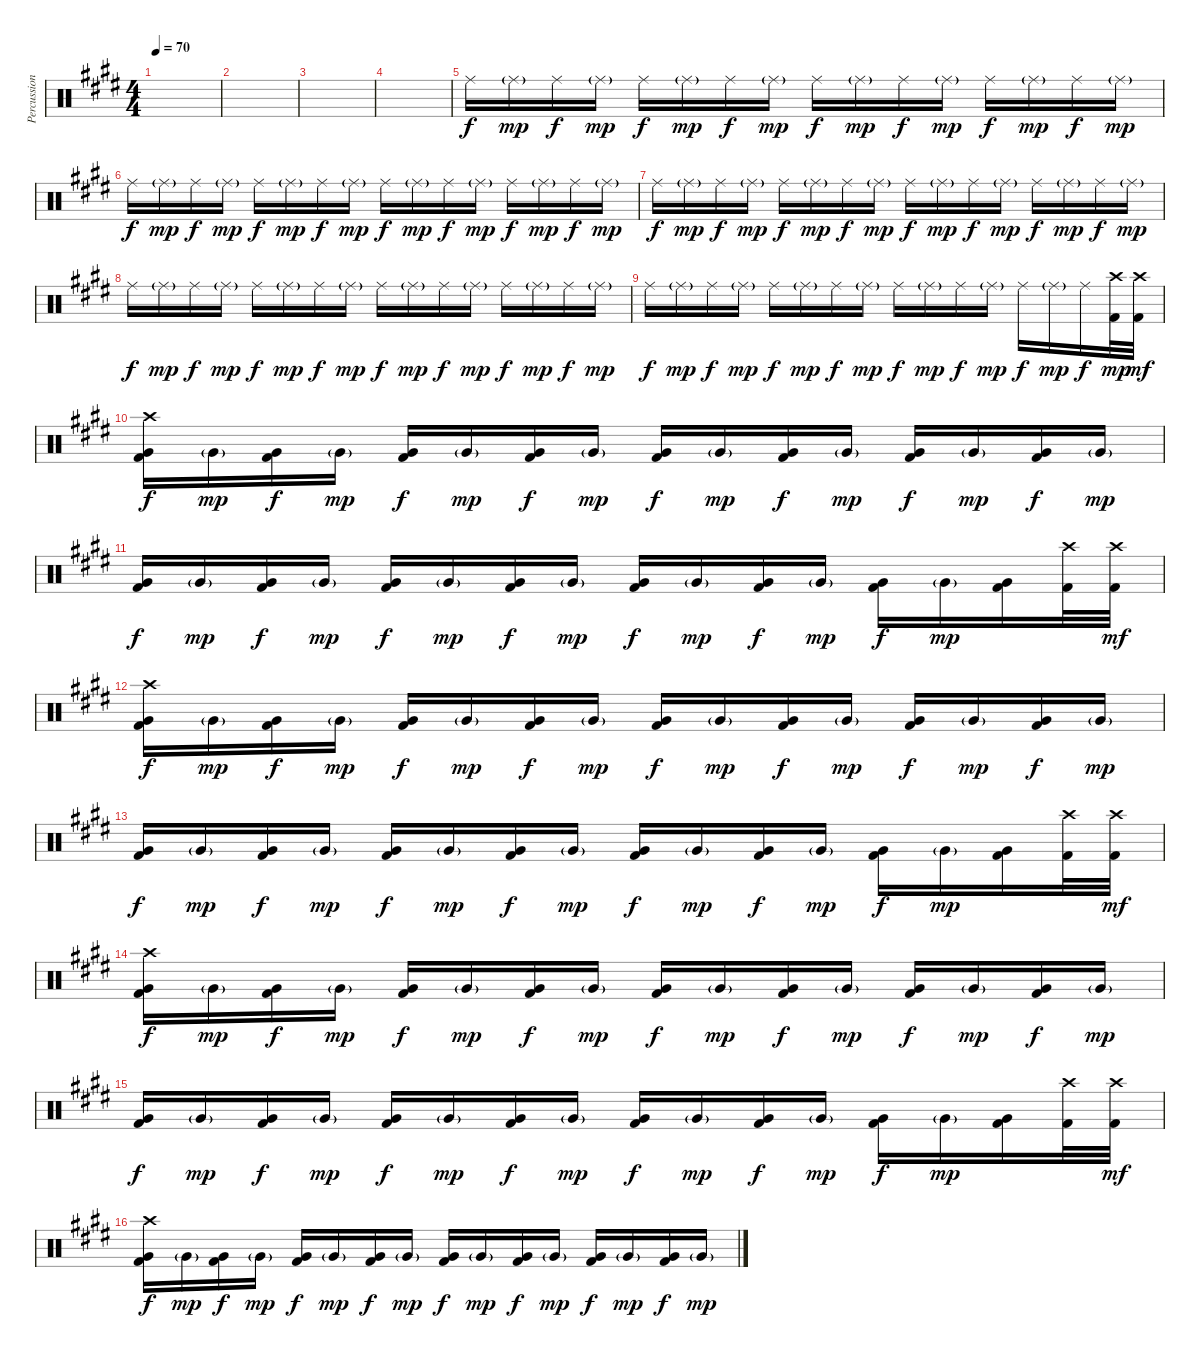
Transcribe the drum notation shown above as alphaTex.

\track ("Percussion" "Percussion") {instrument percussion}
\staff {score}
\articulation defaults
\ts (4 4)
\tempo 70
\clef neutral
\ks e
|
|
|
|
"Ride (middle)".16 "Ride (middle)"{g}.16{dy mp} "Ride (middle)".16{dy f} "Ride (middle)"{g}.16{dy mp} "Ride (middle)".16{dy f} "Ride (middle)"{g}.16{dy mp} "Ride (middle)".16{dy f} "Ride (middle)"{g}.16{dy mp} "Ride (middle)".16{dy f} "Ride (middle)"{g}.16{dy mp} "Ride (middle)".16{dy f} "Ride (middle)"{g}.16{dy mp} "Ride (middle)".16{dy f} "Ride (middle)"{g}.16{dy mp} "Ride (middle)".16{dy f} "Ride (middle)"{g}.16{dy mp} |
"Ride (middle)".16{dy f} "Ride (middle)"{g}.16{dy mp} "Ride (middle)".16{dy f} "Ride (middle)"{g}.16{dy mp} "Ride (middle)".16{dy f} "Ride (middle)"{g}.16{dy mp} "Ride (middle)".16{dy f} "Ride (middle)"{g}.16{dy mp} "Ride (middle)".16{dy f} "Ride (middle)"{g}.16{dy mp} "Ride (middle)".16{dy f} "Ride (middle)"{g}.16{dy mp} "Ride (middle)".16{dy f} "Ride (middle)"{g}.16{dy mp} "Ride (middle)".16{dy f} "Ride (middle)"{g}.16{dy mp} |
"Ride (middle)".16{dy f} "Ride (middle)"{g}.16{dy mp} "Ride (middle)".16{dy f} "Ride (middle)"{g}.16{dy mp} "Ride (middle)".16{dy f} "Ride (middle)"{g}.16{dy mp} "Ride (middle)".16{dy f} "Ride (middle)"{g}.16{dy mp} "Ride (middle)".16{dy f} "Ride (middle)"{g}.16{dy mp} "Ride (middle)".16{dy f} "Ride (middle)"{g}.16{dy mp} "Ride (middle)".16{dy f} "Ride (middle)"{g}.16{dy mp} "Ride (middle)".16{dy f} "Ride (middle)"{g}.16{dy mp} |
"Ride (middle)".16{dy f} "Ride (middle)"{g}.16{dy mp} "Ride (middle)".16{dy f} "Ride (middle)"{g}.16{dy mp} "Ride (middle)".16{dy f} "Ride (middle)"{g}.16{dy mp} "Ride (middle)".16{dy f} "Ride (middle)"{g}.16{dy mp} "Ride (middle)".16{dy f} "Ride (middle)"{g}.16{dy mp} "Ride (middle)".16{dy f} "Ride (middle)"{g}.16{dy mp} "Ride (middle)".16{dy f} "Ride (middle)"{g}.16{dy mp} "Ride (middle)".16{dy f} "Ride (middle)"{g}.16{dy mp} |
"Ride (middle)".16{dy f} "Ride (middle)"{g}.16{dy mp} "Ride (middle)".16{dy f} "Ride (middle)"{g}.16{dy mp} "Ride (middle)".16{dy f} "Ride (middle)"{g}.16{dy mp} "Ride (middle)".16{dy f} "Ride (middle)"{g}.16{dy mp} "Ride (middle)".16{dy f} "Ride (middle)"{g}.16{dy mp} "Ride (middle)".16{dy f} "Ride (middle)"{g}.16{dy mp} "Ride (middle)".16{dy f} "Ride (middle)"{g}.16{dy mp} "Ride (middle)".16{dy f} ("Crash high (hit)" "Kick (hit) 2").32{dy mp} ("Crash high (hit)" "Kick (hit) 2").32{dy mf} |
("Crash high (hit)" "Very Low Tom (hit)" "Kick (hit) 2").16{dy f} "Very Low Tom (hit)"{g}.16{dy mp} ("Very Low Tom (hit)" "Kick (hit) 2").16{dy f} "Very Low Tom (hit)"{g}.16{dy mp} ("Very Low Tom (hit)" "Kick (hit) 2").16{dy f} "Very Low Tom (hit)"{g}.16{dy mp} ("Very Low Tom (hit)" "Kick (hit) 2").16{dy f} "Very Low Tom (hit)"{g}.16{dy mp} ("Very Low Tom (hit)" "Kick (hit) 2").16{dy f} "Very Low Tom (hit)"{g}.16{dy mp} ("Very Low Tom (hit)" "Kick (hit) 2").16{dy f} "Very Low Tom (hit)"{g}.16{dy mp} ("Very Low Tom (hit)" "Kick (hit) 2").16{dy f} "Very Low Tom (hit)"{g}.16{dy mp} ("Very Low Tom (hit)" "Kick (hit) 2").16{dy f} "Very Low Tom (hit)"{g}.16{dy mp} |
("Very Low Tom (hit)" "Kick (hit) 2").16{dy f} "Very Low Tom (hit)"{g}.16{dy mp} ("Very Low Tom (hit)" "Kick (hit) 2").16{dy f} "Very Low Tom (hit)"{g}.16{dy mp} ("Very Low Tom (hit)" "Kick (hit) 2").16{dy f} "Very Low Tom (hit)"{g}.16{dy mp} ("Very Low Tom (hit)" "Kick (hit) 2").16{dy f} "Very Low Tom (hit)"{g}.16{dy mp} ("Very Low Tom (hit)" "Kick (hit) 2").16{dy f} "Very Low Tom (hit)"{g}.16{dy mp} ("Very Low Tom (hit)" "Kick (hit) 2").16{dy f} "Very Low Tom (hit)"{g}.16{dy mp} ("Very Low Tom (hit)" "Kick (hit) 2").16{dy f} "Very Low Tom (hit)"{g}.16{dy mp} ("Very Low Tom (hit)" "Kick (hit) 2").16 ("Crash high (hit)" "Kick (hit) 2").32 ("Crash high (hit)" "Kick (hit) 2").32{dy mf} |
("Crash high (hit)" "Very Low Tom (hit)" "Kick (hit) 2").16{dy f} "Very Low Tom (hit)"{g}.16{dy mp} ("Very Low Tom (hit)" "Kick (hit) 2").16{dy f} "Very Low Tom (hit)"{g}.16{dy mp} ("Very Low Tom (hit)" "Kick (hit) 2").16{dy f} "Very Low Tom (hit)"{g}.16{dy mp} ("Very Low Tom (hit)" "Kick (hit) 2").16{dy f} "Very Low Tom (hit)"{g}.16{dy mp} ("Very Low Tom (hit)" "Kick (hit) 2").16{dy f} "Very Low Tom (hit)"{g}.16{dy mp} ("Very Low Tom (hit)" "Kick (hit) 2").16{dy f} "Very Low Tom (hit)"{g}.16{dy mp} ("Very Low Tom (hit)" "Kick (hit) 2").16{dy f} "Very Low Tom (hit)"{g}.16{dy mp} ("Very Low Tom (hit)" "Kick (hit) 2").16{dy f} "Very Low Tom (hit)"{g}.16{dy mp} |
("Very Low Tom (hit)" "Kick (hit) 2").16{dy f} "Very Low Tom (hit)"{g}.16{dy mp} ("Very Low Tom (hit)" "Kick (hit) 2").16{dy f} "Very Low Tom (hit)"{g}.16{dy mp} ("Very Low Tom (hit)" "Kick (hit) 2").16{dy f} "Very Low Tom (hit)"{g}.16{dy mp} ("Very Low Tom (hit)" "Kick (hit) 2").16{dy f} "Very Low Tom (hit)"{g}.16{dy mp} ("Very Low Tom (hit)" "Kick (hit) 2").16{dy f} "Very Low Tom (hit)"{g}.16{dy mp} ("Very Low Tom (hit)" "Kick (hit) 2").16{dy f} "Very Low Tom (hit)"{g}.16{dy mp} ("Very Low Tom (hit)" "Kick (hit) 2").16{dy f} "Very Low Tom (hit)"{g}.16{dy mp} ("Very Low Tom (hit)" "Kick (hit) 2").16 ("Crash high (hit)" "Kick (hit) 2").32 ("Crash high (hit)" "Kick (hit) 2").32{dy mf} |
("Crash high (hit)" "Very Low Tom (hit)" "Kick (hit) 2").16{dy f} "Very Low Tom (hit)"{g}.16{dy mp} ("Very Low Tom (hit)" "Kick (hit) 2").16{dy f} "Very Low Tom (hit)"{g}.16{dy mp} ("Very Low Tom (hit)" "Kick (hit) 2").16{dy f} "Very Low Tom (hit)"{g}.16{dy mp} ("Very Low Tom (hit)" "Kick (hit) 2").16{dy f} "Very Low Tom (hit)"{g}.16{dy mp} ("Very Low Tom (hit)" "Kick (hit) 2").16{dy f} "Very Low Tom (hit)"{g}.16{dy mp} ("Very Low Tom (hit)" "Kick (hit) 2").16{dy f} "Very Low Tom (hit)"{g}.16{dy mp} ("Very Low Tom (hit)" "Kick (hit) 2").16{dy f} "Very Low Tom (hit)"{g}.16{dy mp} ("Very Low Tom (hit)" "Kick (hit) 2").16{dy f} "Very Low Tom (hit)"{g}.16{dy mp} |
("Very Low Tom (hit)" "Kick (hit) 2").16{dy f} "Very Low Tom (hit)"{g}.16{dy mp} ("Very Low Tom (hit)" "Kick (hit) 2").16{dy f} "Very Low Tom (hit)"{g}.16{dy mp} ("Very Low Tom (hit)" "Kick (hit) 2").16{dy f} "Very Low Tom (hit)"{g}.16{dy mp} ("Very Low Tom (hit)" "Kick (hit) 2").16{dy f} "Very Low Tom (hit)"{g}.16{dy mp} ("Very Low Tom (hit)" "Kick (hit) 2").16{dy f} "Very Low Tom (hit)"{g}.16{dy mp} ("Very Low Tom (hit)" "Kick (hit) 2").16{dy f} "Very Low Tom (hit)"{g}.16{dy mp} ("Very Low Tom (hit)" "Kick (hit) 2").16{dy f} "Very Low Tom (hit)"{g}.16{dy mp} ("Very Low Tom (hit)" "Kick (hit) 2").16 ("Crash high (hit)" "Kick (hit) 2").32 ("Crash high (hit)" "Kick (hit) 2").32{dy mf} |
("Crash high (hit)" "Very Low Tom (hit)" "Kick (hit) 2").16{dy f} "Very Low Tom (hit)"{g}.16{dy mp} ("Very Low Tom (hit)" "Kick (hit) 2").16{dy f} "Very Low Tom (hit)"{g}.16{dy mp} ("Very Low Tom (hit)" "Kick (hit) 2").16{dy f} "Very Low Tom (hit)"{g}.16{dy mp} ("Very Low Tom (hit)" "Kick (hit) 2").16{dy f} "Very Low Tom (hit)"{g}.16{dy mp} ("Very Low Tom (hit)" "Kick (hit) 2").16{dy f} "Very Low Tom (hit)"{g}.16{dy mp} ("Very Low Tom (hit)" "Kick (hit) 2").16{dy f} "Very Low Tom (hit)"{g}.16{dy mp} ("Very Low Tom (hit)" "Kick (hit) 2").16{dy f} "Very Low Tom (hit)"{g}.16{dy mp} ("Very Low Tom (hit)" "Kick (hit) 2").16{dy f} "Very Low Tom (hit)"{g}.16{dy mp}
